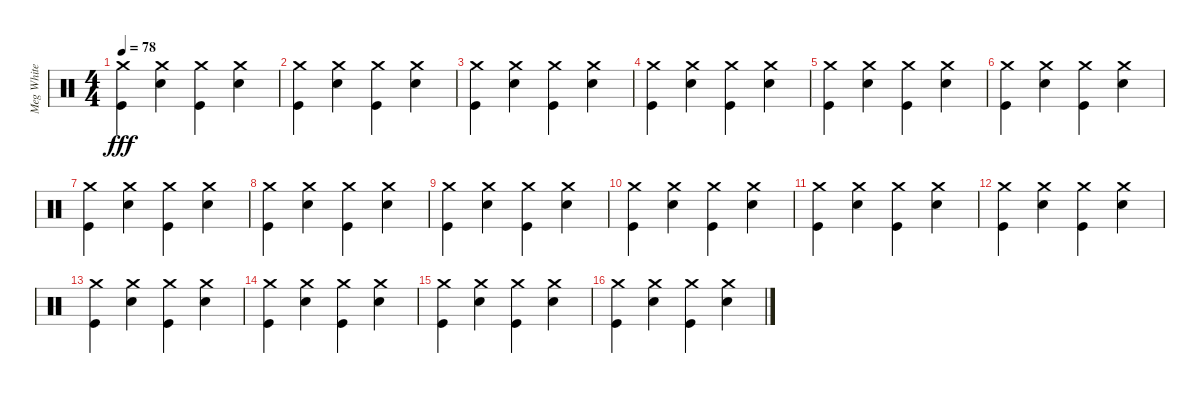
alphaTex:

\track ("Meg White" "Meg White") {instrument percussion}
\staff {score}
\articulation defaults
\ts (4 4)
\tempo 78
\clef neutral
\ks c
("Crash medium (hit)" "Kick (hit)").4{dy fff} ("Crash medium (hit)" "Snare (hit) 2").4 ("Crash medium (hit)" "Kick (hit)").4 ("Crash medium (hit)" "Snare (hit) 2").4 |
("Crash medium (hit)" "Kick (hit)").4 ("Crash medium (hit)" "Snare (hit) 2").4 ("Crash medium (hit)" "Kick (hit)").4 ("Crash medium (hit)" "Snare (hit) 2").4 |
("Crash medium (hit)" "Kick (hit)").4 ("Crash medium (hit)" "Snare (hit) 2").4 ("Crash medium (hit)" "Kick (hit)").4 ("Crash medium (hit)" "Snare (hit) 2").4 |
("Crash medium (hit)" "Kick (hit)").4 ("Crash medium (hit)" "Snare (hit) 2").4 ("Crash medium (hit)" "Kick (hit)").4 ("Crash medium (hit)" "Snare (hit) 2").4 |
("Crash medium (hit)" "Kick (hit)").4 ("Crash medium (hit)" "Snare (hit) 2").4 ("Crash medium (hit)" "Kick (hit)").4 ("Crash medium (hit)" "Snare (hit) 2").4 |
("Crash medium (hit)" "Kick (hit)").4 ("Crash medium (hit)" "Snare (hit) 2").4 ("Crash medium (hit)" "Kick (hit)").4 ("Crash medium (hit)" "Snare (hit) 2").4 |
("Crash medium (hit)" "Kick (hit)").4 ("Crash medium (hit)" "Snare (hit) 2").4 ("Crash medium (hit)" "Kick (hit)").4 ("Crash medium (hit)" "Snare (hit) 2").4 |
("Crash medium (hit)" "Kick (hit)").4 ("Crash medium (hit)" "Snare (hit) 2").4 ("Crash medium (hit)" "Kick (hit)").4 ("Crash medium (hit)" "Snare (hit) 2").4 |
("Crash medium (hit)" "Kick (hit)").4 ("Crash medium (hit)" "Snare (hit) 2").4 ("Crash medium (hit)" "Kick (hit)").4 ("Crash medium (hit)" "Snare (hit) 2").4 |
("Crash medium (hit)" "Kick (hit)").4 ("Crash medium (hit)" "Snare (hit) 2").4 ("Crash medium (hit)" "Kick (hit)").4 ("Crash medium (hit)" "Snare (hit) 2").4 |
("Crash medium (hit)" "Kick (hit)").4 ("Crash medium (hit)" "Snare (hit) 2").4 ("Crash medium (hit)" "Kick (hit)").4 ("Crash medium (hit)" "Snare (hit) 2").4 |
("Crash medium (hit)" "Kick (hit)").4 ("Crash medium (hit)" "Snare (hit) 2").4 ("Crash medium (hit)" "Kick (hit)").4 ("Crash medium (hit)" "Snare (hit) 2").4 |
("Crash medium (hit)" "Kick (hit)").4 ("Crash medium (hit)" "Snare (hit) 2").4 ("Crash medium (hit)" "Kick (hit)").4 ("Crash medium (hit)" "Snare (hit) 2").4 |
("Crash medium (hit)" "Kick (hit)").4 ("Crash medium (hit)" "Snare (hit) 2").4 ("Crash medium (hit)" "Kick (hit)").4 ("Crash medium (hit)" "Snare (hit) 2").4 |
("Crash medium (hit)" "Kick (hit)").4 ("Crash medium (hit)" "Snare (hit) 2").4 ("Crash medium (hit)" "Kick (hit)").4 ("Crash medium (hit)" "Snare (hit) 2").4 |
("Crash medium (hit)" "Kick (hit)").4 ("Crash medium (hit)" "Snare (hit) 2").4 ("Crash medium (hit)" "Kick (hit)").4 ("Crash medium (hit)" "Snare (hit) 2").4
